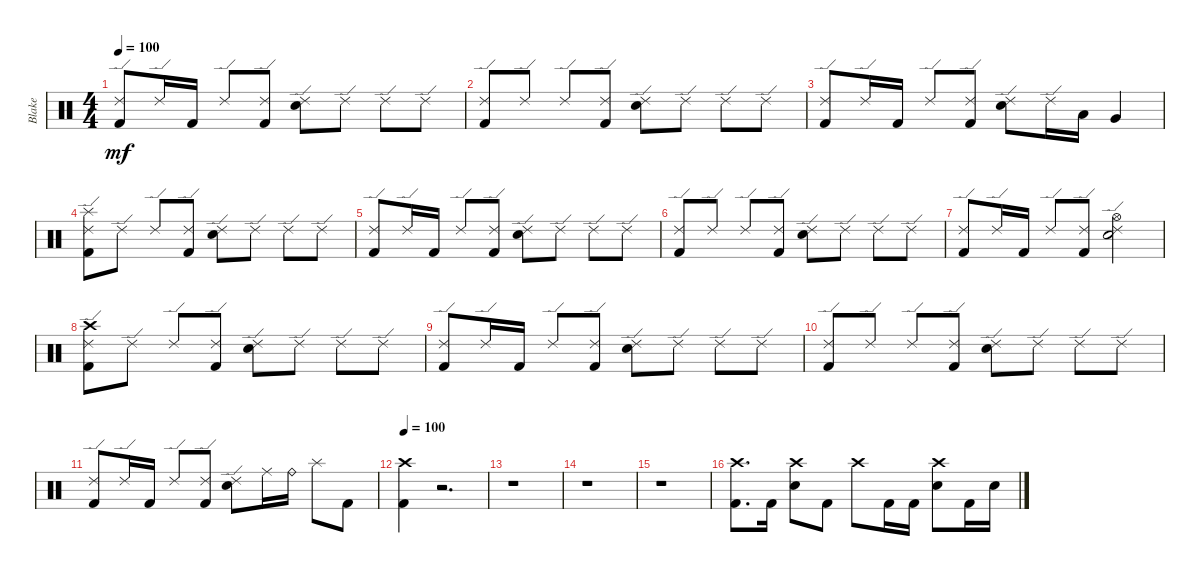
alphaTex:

\track ("Blake" "Blake") {instrument percussion}
\staff {score}
\articulation defaults
\ts (4 4)
\tempo 100
\clef neutral
\ks c
("Ride (edge) 2" "Kick (hit) 2").8{dy mf} "Ride (edge) 2".16 "Kick (hit) 2".16 "Ride (edge) 2".8 ("Ride (edge) 2" "Kick (hit) 2").8 ("Ride (edge) 2" "Snare (hit) 2").8 "Ride (edge) 2".8 "Ride (edge) 2".8 "Ride (edge) 2".8 |
("Ride (edge) 2" "Kick (hit) 2").8 "Ride (edge) 2".8 "Ride (edge) 2".8 ("Ride (edge) 2" "Kick (hit) 2").8 ("Ride (edge) 2" "Snare (hit) 2").8 "Ride (edge) 2".8 "Ride (edge) 2".8 "Ride (edge) 2".8 |
("Ride (edge) 2" "Kick (hit) 2").8 "Ride (edge) 2".16 "Kick (hit) 2".16 "Ride (edge) 2".8 ("Ride (edge) 2" "Kick (hit) 2").8 ("Ride (edge) 2" "Snare (hit) 2").8 "Ride (edge) 2".16 "Low Tom (hit)".16 "Very Low Tom (hit)".4 |
("Splash (hit)" "Ride (edge) 2" "Kick (hit) 2").8 "Ride (edge) 2".8 "Ride (edge) 2".8 ("Ride (edge) 2" "Kick (hit) 2").8 ("Ride (edge) 2" "Snare (hit) 2").8 "Ride (edge) 2".8 "Ride (edge) 2".8 "Ride (edge) 2".8 |
("Ride (edge) 2" "Kick (hit) 2").8 "Ride (edge) 2".16 "Kick (hit) 2".16 "Ride (edge) 2".8 ("Ride (edge) 2" "Kick (hit) 2").8 ("Ride (edge) 2" "Snare (hit) 2").8 "Ride (edge) 2".8 "Ride (edge) 2".8 "Ride (edge) 2".8 |
("Ride (edge) 2" "Kick (hit) 2").8 "Ride (edge) 2".8 "Ride (edge) 2".8 ("Ride (edge) 2" "Kick (hit) 2").8 ("Ride (edge) 2" "Snare (hit) 2").8 "Ride (edge) 2".8 "Ride (edge) 2".8 "Ride (edge) 2".8 |
("Ride (edge) 2" "Kick (hit) 2").8 "Ride (edge) 2".16 "Kick (hit) 2".16 "Ride (edge) 2".8 ("Ride (edge) 2" "Kick (hit) 2").8 ("Hi-Hat (open)" "Ride (edge) 2" "Snare (hit) 2").2 |
("Crash high (hit)" "Ride (edge) 2" "Kick (hit) 2").8 "Ride (edge) 2".8 "Ride (edge) 2".8 ("Ride (edge) 2" "Kick (hit) 2").8 ("Ride (edge) 2" "Snare (hit) 2").8 "Ride (edge) 2".8 "Ride (edge) 2".8 "Ride (edge) 2".8 |
("Ride (edge) 2" "Kick (hit) 2").8 "Ride (edge) 2".16 "Kick (hit) 2".16 "Ride (edge) 2".8 ("Ride (edge) 2" "Kick (hit) 2").8 ("Ride (edge) 2" "Snare (hit) 2").8 "Ride (edge) 2".8 "Ride (edge) 2".8 "Ride (edge) 2".8 |
("Ride (edge) 2" "Kick (hit) 2").8 "Ride (edge) 2".8 "Ride (edge) 2".8 ("Ride (edge) 2" "Kick (hit) 2").8 ("Ride (edge) 2" "Snare (hit) 2").8 "Ride (edge) 2".8 "Ride (edge) 2".8 "Ride (edge) 2".8 |
("Ride (edge) 2" "Kick (hit) 2").8 "Ride (edge) 2".16 "Kick (hit) 2".16 "Ride (edge) 2".8 ("Ride (edge) 2" "Kick (hit) 2").8 ("Ride (edge) 2" "Snare (hit) 2").8 "Ride (middle)".16 "Ride (bell)".16 "Splash (hit)".8 "Kick (hit) 2".8 |
\tempo 100
("Crash high (hit)" "Kick (hit) 2").4 r.2{d} |
r.1 |
r.1 |
r.1 |
("Crash high (hit)" "Kick (hit) 2").8{d} "Kick (hit) 2".16 ("Crash high (hit)" "Snare (hit) 2").8 "Kick (hit) 2".8 "Crash high (hit)".8 "Kick (hit) 2".16 "Kick (hit) 2".16 ("Crash high (hit)" "Snare (hit) 2").8 "Kick (hit) 2".16 "Snare (hit) 2".16
